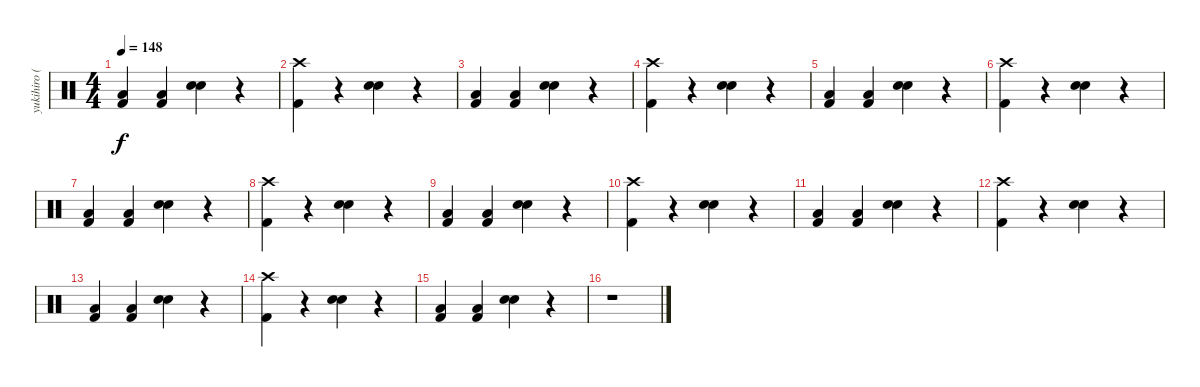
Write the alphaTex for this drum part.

\track ("yukihiro (Drums)" "yukihiro (") {instrument percussion}
\staff {score}
\articulation defaults
\ts (4 4)
\tempo 148
\clef neutral
\ks c
("Low Tom (hit)" "Kick (hit) 2").4{dy f} ("Low Tom (hit)" "Kick (hit) 2").4 ("Electric Snare (hit)" "Electric Snare (hit)").4 r.4 |
("Crash high (hit)" "Kick (hit) 2").4 r.4 ("Electric Snare (hit)" "Electric Snare (hit)").4 r.4 |
("Low Tom (hit)" "Kick (hit) 2").4 ("Low Tom (hit)" "Kick (hit) 2").4 ("Electric Snare (hit)" "Electric Snare (hit)").4 r.4 |
("Crash high (hit)" "Kick (hit) 2").4 r.4 ("Electric Snare (hit)" "Electric Snare (hit)").4 r.4 |
("Low Tom (hit)" "Kick (hit) 2").4 ("Low Tom (hit)" "Kick (hit) 2").4 ("Electric Snare (hit)" "Electric Snare (hit)").4 r.4 |
("Crash high (hit)" "Kick (hit) 2").4 r.4 ("Electric Snare (hit)" "Electric Snare (hit)").4 r.4 |
("Low Tom (hit)" "Kick (hit) 2").4 ("Low Tom (hit)" "Kick (hit) 2").4 ("Electric Snare (hit)" "Electric Snare (hit)").4 r.4 |
("Crash high (hit)" "Kick (hit) 2").4 r.4 ("Electric Snare (hit)" "Electric Snare (hit)").4 r.4 |
("Low Tom (hit)" "Kick (hit) 2").4 ("Low Tom (hit)" "Kick (hit) 2").4 ("Electric Snare (hit)" "Electric Snare (hit)").4 r.4 |
("Crash high (hit)" "Kick (hit) 2").4 r.4 ("Electric Snare (hit)" "Electric Snare (hit)").4 r.4 |
("Low Tom (hit)" "Kick (hit) 2").4 ("Low Tom (hit)" "Kick (hit) 2").4 ("Electric Snare (hit)" "Electric Snare (hit)").4 r.4 |
("Crash high (hit)" "Kick (hit) 2").4{volume 16} r.4 ("Electric Snare (hit)" "Electric Snare (hit)").4{volume 14} r.4 |
("Low Tom (hit)" "Kick (hit) 2").4{volume 12} ("Low Tom (hit)" "Kick (hit) 2").4{volume 11} ("Electric Snare (hit)" "Electric Snare (hit)").4{volume 10} r.4 |
("Crash high (hit)" "Kick (hit) 2").4{volume 8} r.4 ("Electric Snare (hit)" "Electric Snare (hit)").4{volume 6} r.4 |
("Low Tom (hit)" "Kick (hit) 2").4{volume 4} ("Low Tom (hit)" "Kick (hit) 2").4{volume 3} ("Electric Snare (hit)" "Electric Snare (hit)").4{volume 2} r.4 |
r.1
